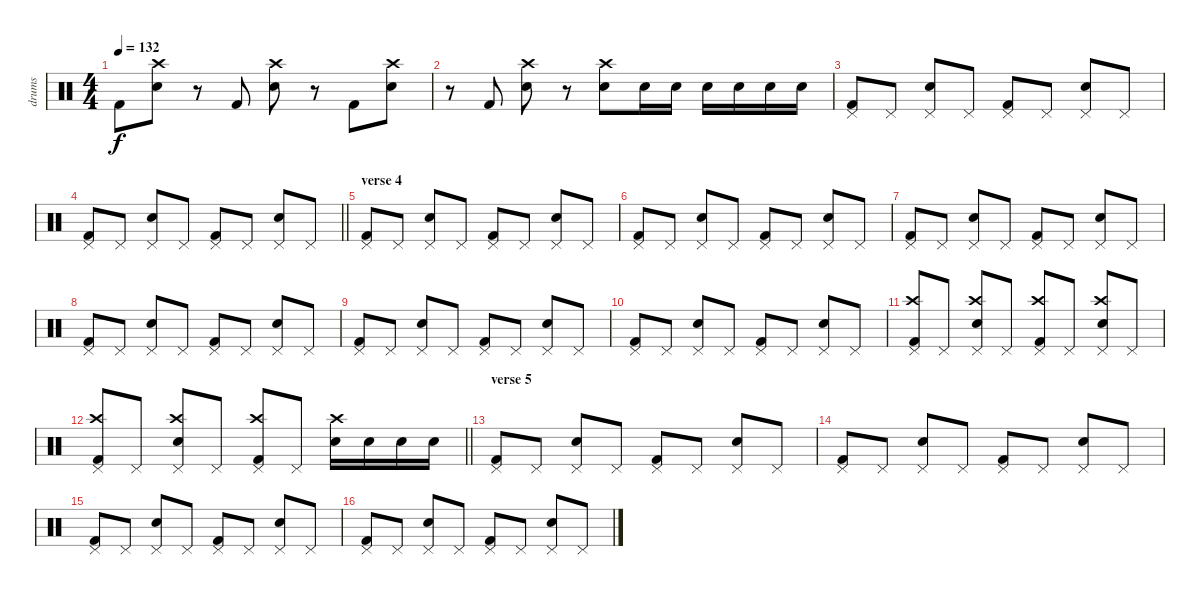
\track ("drums" "drums") {instrument percussion}
\staff {score}
\articulation defaults
\ts (4 4)
\tempo 132
\clef neutral
\ks c "Kick (hit) 2".8{dy f}
("Electric Snare (hit)" "Crash high (hit)").8 r.8 "Kick (hit) 2".8 ("Electric Snare (hit)" "Crash high (hit)").8 r.8 "Kick (hit) 2".8 ("Electric Snare (hit)" "Crash high (hit)").8 |
r.8 "Kick (hit) 2".8 ("Electric Snare (hit)" "Crash high (hit)").8 r.8 ("Electric Snare (hit)" "Crash high (hit)").8 "Electric Snare (hit)".16 "Electric Snare (hit)".16 "Electric Snare (hit)".16 "Electric Snare (hit)".16 "Electric Snare (hit)".16 "Electric Snare (hit)".16 |
("Kick (hit) 2" "Pedal Hi-Hat (hit)").8 "Pedal Hi-Hat (hit)".8 ("Electric Snare (hit)" "Pedal Hi-Hat (hit)").8 "Pedal Hi-Hat (hit)".8 ("Kick (hit) 2" "Pedal Hi-Hat (hit)").8 "Pedal Hi-Hat (hit)".8 ("Electric Snare (hit)" "Pedal Hi-Hat (hit)").8 "Pedal Hi-Hat (hit)".8 |
\barLineRight lightlight
("Kick (hit) 2" "Pedal Hi-Hat (hit)").8 "Pedal Hi-Hat (hit)".8 ("Electric Snare (hit)" "Pedal Hi-Hat (hit)").8 "Pedal Hi-Hat (hit)".8 ("Kick (hit) 2" "Pedal Hi-Hat (hit)").8 "Pedal Hi-Hat (hit)".8 ("Electric Snare (hit)" "Pedal Hi-Hat (hit)").8 "Pedal Hi-Hat (hit)".8 |
\section ("" "verse 4")
("Kick (hit) 2" "Pedal Hi-Hat (hit)").8 "Pedal Hi-Hat (hit)".8 ("Electric Snare (hit)" "Pedal Hi-Hat (hit)").8 "Pedal Hi-Hat (hit)".8 ("Kick (hit) 2" "Pedal Hi-Hat (hit)").8 "Pedal Hi-Hat (hit)".8 ("Electric Snare (hit)" "Pedal Hi-Hat (hit)").8 "Pedal Hi-Hat (hit)".8 |
("Kick (hit) 2" "Pedal Hi-Hat (hit)").8 "Pedal Hi-Hat (hit)".8 ("Electric Snare (hit)" "Pedal Hi-Hat (hit)").8 "Pedal Hi-Hat (hit)".8 ("Kick (hit) 2" "Pedal Hi-Hat (hit)").8 "Pedal Hi-Hat (hit)".8 ("Electric Snare (hit)" "Pedal Hi-Hat (hit)").8 "Pedal Hi-Hat (hit)".8 |
("Kick (hit) 2" "Pedal Hi-Hat (hit)").8 "Pedal Hi-Hat (hit)".8 ("Electric Snare (hit)" "Pedal Hi-Hat (hit)").8 "Pedal Hi-Hat (hit)".8 ("Kick (hit) 2" "Pedal Hi-Hat (hit)").8 "Pedal Hi-Hat (hit)".8 ("Electric Snare (hit)" "Pedal Hi-Hat (hit)").8 "Pedal Hi-Hat (hit)".8 |
("Kick (hit) 2" "Pedal Hi-Hat (hit)").8 "Pedal Hi-Hat (hit)".8 ("Electric Snare (hit)" "Pedal Hi-Hat (hit)").8 "Pedal Hi-Hat (hit)".8 ("Kick (hit) 2" "Pedal Hi-Hat (hit)").8 "Pedal Hi-Hat (hit)".8 ("Electric Snare (hit)" "Pedal Hi-Hat (hit)").8 "Pedal Hi-Hat (hit)".8 |
("Kick (hit) 2" "Pedal Hi-Hat (hit)").8 "Pedal Hi-Hat (hit)".8 ("Electric Snare (hit)" "Pedal Hi-Hat (hit)").8 "Pedal Hi-Hat (hit)".8 ("Kick (hit) 2" "Pedal Hi-Hat (hit)").8 "Pedal Hi-Hat (hit)".8 ("Electric Snare (hit)" "Pedal Hi-Hat (hit)").8 "Pedal Hi-Hat (hit)".8 |
("Kick (hit) 2" "Pedal Hi-Hat (hit)").8 "Pedal Hi-Hat (hit)".8 ("Electric Snare (hit)" "Pedal Hi-Hat (hit)").8 "Pedal Hi-Hat (hit)".8 ("Kick (hit) 2" "Pedal Hi-Hat (hit)").8 "Pedal Hi-Hat (hit)".8 ("Electric Snare (hit)" "Pedal Hi-Hat (hit)").8 "Pedal Hi-Hat (hit)".8 |
("Kick (hit) 2" "Crash high (hit)" "Pedal Hi-Hat (hit)").8 "Pedal Hi-Hat (hit)".8 ("Electric Snare (hit)" "Crash high (hit)" "Pedal Hi-Hat (hit)").8 "Pedal Hi-Hat (hit)".8 ("Kick (hit) 2" "Crash high (hit)" "Pedal Hi-Hat (hit)").8 "Pedal Hi-Hat (hit)".8 ("Electric Snare (hit)" "Crash high (hit)" "Pedal Hi-Hat (hit)").8 "Pedal Hi-Hat (hit)".8 |
\barLineRight lightlight
("Kick (hit) 2" "Crash high (hit)" "Pedal Hi-Hat (hit)").8 "Pedal Hi-Hat (hit)".8 ("Electric Snare (hit)" "Crash high (hit)" "Pedal Hi-Hat (hit)").8 "Pedal Hi-Hat (hit)".8 ("Kick (hit) 2" "Crash high (hit)" "Pedal Hi-Hat (hit)").8 "Pedal Hi-Hat (hit)".8 ("Electric Snare (hit)" "Crash high (hit)").16 "Electric Snare (hit)".16 "Electric Snare (hit)".16 "Electric Snare (hit)".16 |
\section ("" "verse 5")
("Kick (hit) 2" "Pedal Hi-Hat (hit)").8 "Pedal Hi-Hat (hit)".8 ("Electric Snare (hit)" "Pedal Hi-Hat (hit)").8 "Pedal Hi-Hat (hit)".8 ("Kick (hit) 2" "Pedal Hi-Hat (hit)").8 "Pedal Hi-Hat (hit)".8 ("Electric Snare (hit)" "Pedal Hi-Hat (hit)").8 "Pedal Hi-Hat (hit)".8 |
("Kick (hit) 2" "Pedal Hi-Hat (hit)").8 "Pedal Hi-Hat (hit)".8 ("Electric Snare (hit)" "Pedal Hi-Hat (hit)").8 "Pedal Hi-Hat (hit)".8 ("Kick (hit) 2" "Pedal Hi-Hat (hit)").8 "Pedal Hi-Hat (hit)".8 ("Electric Snare (hit)" "Pedal Hi-Hat (hit)").8 "Pedal Hi-Hat (hit)".8 |
("Kick (hit) 2" "Pedal Hi-Hat (hit)").8 "Pedal Hi-Hat (hit)".8 ("Electric Snare (hit)" "Pedal Hi-Hat (hit)").8 "Pedal Hi-Hat (hit)".8 ("Kick (hit) 2" "Pedal Hi-Hat (hit)").8 "Pedal Hi-Hat (hit)".8 ("Electric Snare (hit)" "Pedal Hi-Hat (hit)").8 "Pedal Hi-Hat (hit)".8 |
("Kick (hit) 2" "Pedal Hi-Hat (hit)").8 "Pedal Hi-Hat (hit)".8 ("Electric Snare (hit)" "Pedal Hi-Hat (hit)").8 "Pedal Hi-Hat (hit)".8 ("Kick (hit) 2" "Pedal Hi-Hat (hit)").8 "Pedal Hi-Hat (hit)".8 ("Electric Snare (hit)" "Pedal Hi-Hat (hit)").8 "Pedal Hi-Hat (hit)".8
